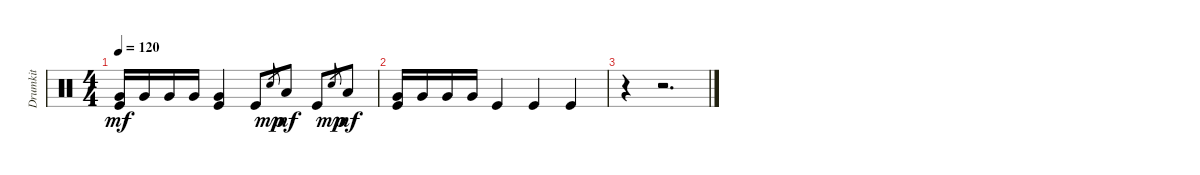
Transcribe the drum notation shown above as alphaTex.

\track ("Drumkit" "Drumkit") {instrument percussion}
\staff {score}
\articulation defaults
\ts (4 4)
\tempo 120
\clef neutral
\ks c
("Kick (hit)" "Very Low Tom (hit)").16{dy mf} "Very Low Tom (hit)".16 "Very Low Tom (hit)".16 "Very Low Tom (hit)".16 ("Very Low Tom (hit)" "Kick (hit)").4 "Kick (hit)".8 "Snare (hit)".8{gr dy mp} "Low Tom (hit)".8{dy mf} "Kick (hit)".8 "Snare (hit)".8{gr dy mp} "Low Tom (hit)".8{dy mf} |
("Kick (hit)" "Very Low Tom (hit)").16 "Very Low Tom (hit)".16 "Very Low Tom (hit)".16 "Very Low Tom (hit)".16 "Kick (hit)".4 "Kick (hit)".4 "Kick (hit)".4 |
r.4 r.2{d}
